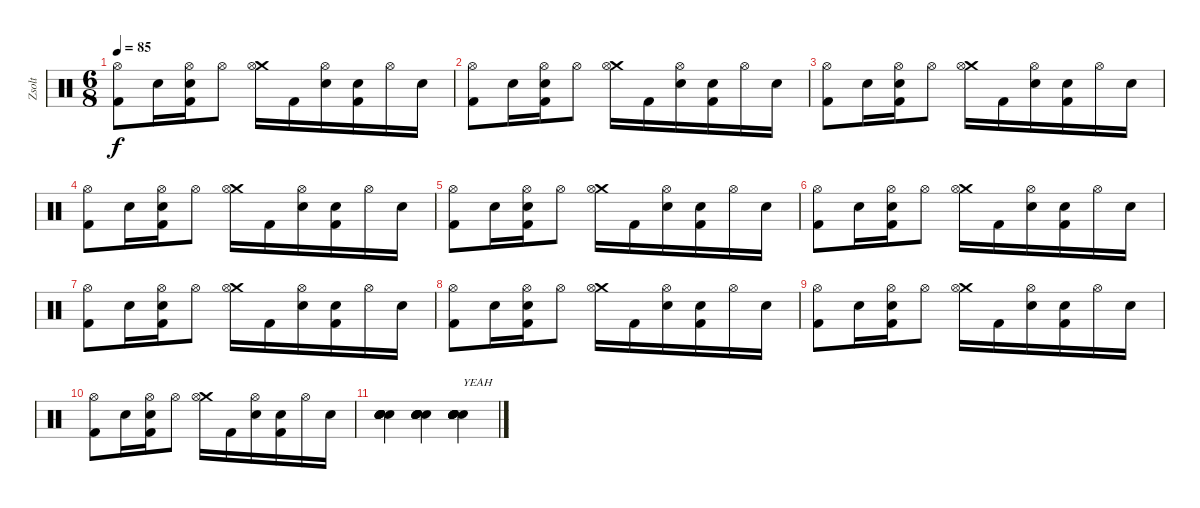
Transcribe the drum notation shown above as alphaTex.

\track ("Zsolt" "Zsolt") {instrument percussion}
\staff {score}
\articulation defaults
\ts (6 8)
\tempo 85
\clef neutral
\ks c
("Hi-Hat (open)" "Kick (hit) 2").8{dy f} "Snare (hit) 2".16 ("Hi-Hat (open)" "Snare (hit) 2" "Kick (hit) 2").16 "Hi-Hat (open)".8 ("Crash medium (hit)" "Hi-Hat (open)").16 "Kick (hit) 2".16 ("Hi-Hat (open)" "Snare (hit) 2").16 ("Snare (hit) 2" "Kick (hit) 2").16 "Hi-Hat (open)".16 "Snare (hit) 2".16 |
("Hi-Hat (open)" "Kick (hit) 2").8 "Snare (hit) 2".16 ("Hi-Hat (open)" "Snare (hit) 2" "Kick (hit) 2").16 "Hi-Hat (open)".8 ("Crash medium (hit)" "Hi-Hat (open)").16 "Kick (hit) 2".16 ("Hi-Hat (open)" "Snare (hit) 2").16 ("Snare (hit) 2" "Kick (hit) 2").16 "Hi-Hat (open)".16 "Snare (hit) 2".16 |
("Hi-Hat (open)" "Kick (hit) 2").8 "Snare (hit) 2".16 ("Hi-Hat (open)" "Snare (hit) 2" "Kick (hit) 2").16 "Hi-Hat (open)".8 ("Crash medium (hit)" "Hi-Hat (open)").16 "Kick (hit) 2".16 ("Hi-Hat (open)" "Snare (hit) 2").16 ("Snare (hit) 2" "Kick (hit) 2").16 "Hi-Hat (open)".16 "Snare (hit) 2".16 |
("Hi-Hat (open)" "Kick (hit) 2").8 "Snare (hit) 2".16 ("Hi-Hat (open)" "Snare (hit) 2" "Kick (hit) 2").16 "Hi-Hat (open)".8 ("Crash medium (hit)" "Hi-Hat (open)").16 "Kick (hit) 2".16 ("Hi-Hat (open)" "Snare (hit) 2").16 ("Snare (hit) 2" "Kick (hit) 2").16 "Hi-Hat (open)".16 "Snare (hit) 2".16 |
("Hi-Hat (open)" "Kick (hit) 2").8 "Snare (hit) 2".16 ("Hi-Hat (open)" "Snare (hit) 2" "Kick (hit) 2").16 "Hi-Hat (open)".8 ("Crash medium (hit)" "Hi-Hat (open)").16 "Kick (hit) 2".16 ("Hi-Hat (open)" "Snare (hit) 2").16 ("Snare (hit) 2" "Kick (hit) 2").16 "Hi-Hat (open)".16 "Snare (hit) 2".16 |
("Hi-Hat (open)" "Kick (hit) 2").8 "Snare (hit) 2".16 ("Hi-Hat (open)" "Snare (hit) 2" "Kick (hit) 2").16 "Hi-Hat (open)".8 ("Crash medium (hit)" "Hi-Hat (open)").16 "Kick (hit) 2".16 ("Hi-Hat (open)" "Snare (hit) 2").16 ("Snare (hit) 2" "Kick (hit) 2").16 "Hi-Hat (open)".16 "Snare (hit) 2".16 |
("Hi-Hat (open)" "Kick (hit) 2").8 "Snare (hit) 2".16 ("Hi-Hat (open)" "Snare (hit) 2" "Kick (hit) 2").16 "Hi-Hat (open)".8 ("Crash medium (hit)" "Hi-Hat (open)").16 "Kick (hit) 2".16 ("Hi-Hat (open)" "Snare (hit) 2").16 ("Snare (hit) 2" "Kick (hit) 2").16 "Hi-Hat (open)".16 "Snare (hit) 2".16 |
("Hi-Hat (open)" "Kick (hit) 2").8 "Snare (hit) 2".16 ("Hi-Hat (open)" "Snare (hit) 2" "Kick (hit) 2").16 "Hi-Hat (open)".8 ("Crash medium (hit)" "Hi-Hat (open)").16 "Kick (hit) 2".16 ("Hi-Hat (open)" "Snare (hit) 2").16 ("Snare (hit) 2" "Kick (hit) 2").16 "Hi-Hat (open)".16 "Snare (hit) 2".16 |
("Hi-Hat (open)" "Kick (hit) 2").8 "Snare (hit) 2".16 ("Hi-Hat (open)" "Snare (hit) 2" "Kick (hit) 2").16 "Hi-Hat (open)".8 ("Crash medium (hit)" "Hi-Hat (open)").16 "Kick (hit) 2".16 ("Hi-Hat (open)" "Snare (hit) 2").16 ("Snare (hit) 2" "Kick (hit) 2").16 "Hi-Hat (open)".16 "Snare (hit) 2".16 |
("Hi-Hat (open)" "Kick (hit) 2").8 "Snare (hit) 2".16 ("Hi-Hat (open)" "Snare (hit) 2" "Kick (hit) 2").16 "Hi-Hat (open)".8 ("Crash medium (hit)" "Hi-Hat (open)").16 "Kick (hit) 2".16 ("Hi-Hat (open)" "Snare (hit) 2").16 ("Snare (hit) 2" "Kick (hit) 2").16 "Hi-Hat (open)".16 "Snare (hit) 2".16 |
("Snare (hit)"{x} "Snare (hit)"{x} "Snare (hit)"{x} "Snare (hit)"{x} "Snare (hit)"{x} "Snare (hit)"{x}).4 ("Snare (hit)"{x} "Snare (hit)"{x} "Snare (hit)"{x} "Snare (hit)"{x} "Snare (hit)"{x} "Snare (hit)"{x}).4 ("Snare (hit)"{x} "Snare (hit)"{x} "Snare (hit)"{x} "Snare (hit)"{x} "Snare (hit)"{x} "Snare (hit)"{x}).4{txt "YEAH"}
